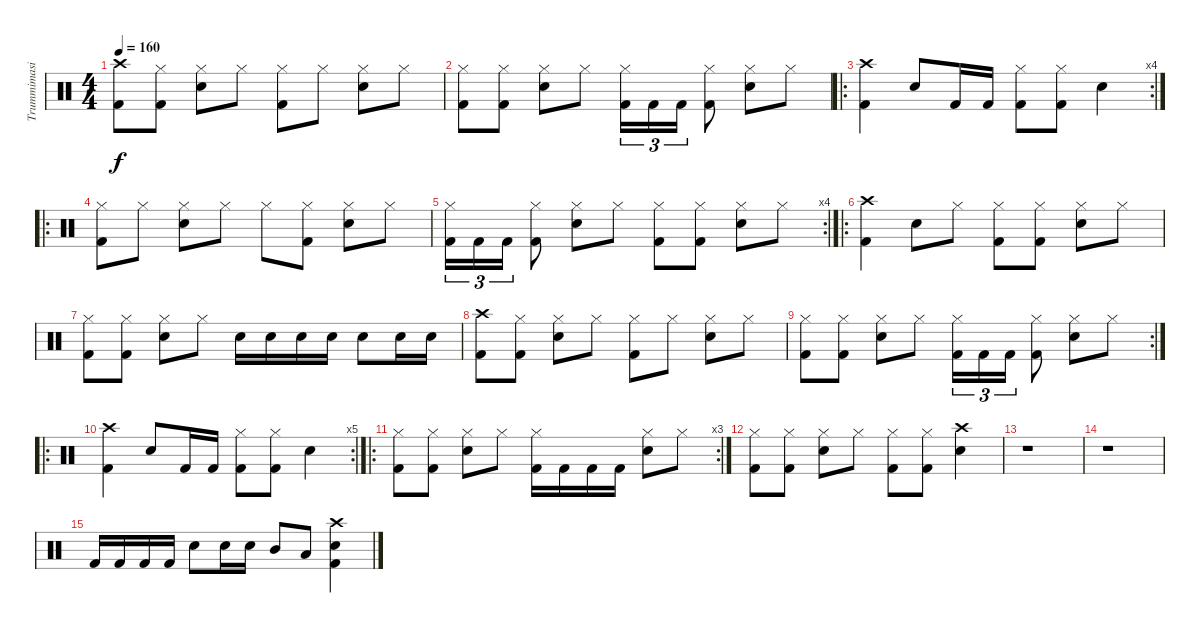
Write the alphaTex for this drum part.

\track ("Trummimasin" "Trummimasi") {instrument percussion}
\staff {score}
\articulation defaults
\ts (4 4)
\tempo 160
\clef neutral
\ks c
("Crash high (hit)" "Kick (hit) 2").8{dy f} ("Hi-Hat (closed)" "Kick (hit) 2").8 ("Hi-Hat (closed)" "Snare (hit) 2").8 "Hi-Hat (closed)".8 ("Hi-Hat (closed)" "Kick (hit) 2").8 "Hi-Hat (closed)".8 ("Hi-Hat (closed)" "Snare (hit) 2").8 "Hi-Hat (closed)".8 |
("Hi-Hat (closed)" "Kick (hit) 2").8 ("Hi-Hat (closed)" "Kick (hit) 2").8 ("Hi-Hat (closed)" "Snare (hit) 2").8 "Hi-Hat (closed)".8 ("Hi-Hat (closed)" "Kick (hit) 2").16{tu (3 2)} "Kick (hit) 2".16{tu (3 2)} "Kick (hit) 2".16{tu (3 2)} ("Hi-Hat (closed)" "Kick (hit) 2").8 ("Hi-Hat (closed)" "Snare (hit) 2").8 "Hi-Hat (closed)".8 |
\ro
\rc 4
("Crash high (hit)" "Kick (hit) 2").4{volume 14} "Snare (hit) 2".8 "Kick (hit) 2".16 "Kick (hit) 2".16 ("Hi-Hat (closed)" "Kick (hit) 2").8 ("Hi-Hat (closed)" "Kick (hit) 2").8 "Snare (hit) 2".4 |
\ro
("Hi-Hat (closed)" "Kick (hit) 2").8 "Hi-Hat (closed)".8 ("Hi-Hat (closed)" "Snare (hit) 2").8 "Hi-Hat (closed)".8 "Hi-Hat (closed)".8 ("Hi-Hat (closed)" "Kick (hit) 2").8 ("Hi-Hat (closed)" "Snare (hit) 2").8 "Hi-Hat (closed)".8 |
\rc 4
("Hi-Hat (closed)" "Kick (hit) 2").16{tu (3 2)} "Kick (hit) 2".16{tu (3 2)} "Kick (hit) 2".16{tu (3 2)} ("Hi-Hat (closed)" "Kick (hit) 2").8 ("Hi-Hat (closed)" "Snare (hit) 2").8 "Hi-Hat (closed)".8 ("Hi-Hat (closed)" "Kick (hit) 2").8 ("Hi-Hat (closed)" "Kick (hit) 2").8 ("Hi-Hat (closed)" "Snare (hit) 2").8 "Hi-Hat (closed)".8 |
\ro
("Crash high (hit)" "Kick (hit) 2").4 "Snare (hit) 2".8 "Hi-Hat (closed)".8 ("Hi-Hat (closed)" "Kick (hit) 2").8 ("Hi-Hat (closed)" "Kick (hit) 2").8 ("Hi-Hat (closed)" "Snare (hit) 2").8 "Hi-Hat (closed)".8 |
("Hi-Hat (closed)" "Kick (hit) 2").8 ("Hi-Hat (closed)" "Kick (hit) 2").8 ("Hi-Hat (closed)" "Snare (hit) 2").8 "Hi-Hat (closed)".8 "Snare (hit) 2".16 "Snare (hit) 2".16 "Snare (hit) 2".16 "Snare (hit) 2".16 "Snare (hit) 2".8 "Snare (hit) 2".16 "Snare (hit) 2".16 |
("Crash high (hit)" "Kick (hit) 2").8 ("Hi-Hat (closed)" "Kick (hit) 2").8 ("Hi-Hat (closed)" "Snare (hit) 2").8 "Hi-Hat (closed)".8 ("Hi-Hat (closed)" "Kick (hit) 2").8 "Hi-Hat (closed)".8 ("Hi-Hat (closed)" "Snare (hit) 2").8 "Hi-Hat (closed)".8 |
\rc 2
("Hi-Hat (closed)" "Kick (hit) 2").8 ("Hi-Hat (closed)" "Kick (hit) 2").8 ("Hi-Hat (closed)" "Snare (hit) 2").8 "Hi-Hat (closed)".8 ("Hi-Hat (closed)" "Kick (hit) 2").16{tu (3 2)} "Kick (hit) 2".16{tu (3 2)} "Kick (hit) 2".16{tu (3 2)} ("Hi-Hat (closed)" "Kick (hit) 2").8 ("Hi-Hat (closed)" "Snare (hit) 2").8 "Hi-Hat (closed)".8 |
\ro
\rc 5
("Crash high (hit)" "Kick (hit) 2").4 "Snare (hit) 2".8 "Kick (hit) 2".16 "Kick (hit) 2".16 ("Hi-Hat (closed)" "Kick (hit) 2").8 ("Hi-Hat (closed)" "Kick (hit) 2").8 "Snare (hit) 2".4 |
\ro
\rc 3
("Hi-Hat (closed)" "Kick (hit) 2").8 ("Hi-Hat (closed)" "Kick (hit) 2").8 ("Hi-Hat (closed)" "Snare (hit) 2").8 "Hi-Hat (closed)".8 ("Hi-Hat (closed)" "Kick (hit) 2").16 "Kick (hit) 2".16 "Kick (hit) 2".16 "Kick (hit) 2".16 ("Hi-Hat (closed)" "Snare (hit) 2").8 "Hi-Hat (closed)".8 |
("Hi-Hat (closed)" "Kick (hit) 2").8 ("Hi-Hat (closed)" "Kick (hit) 2").8 ("Hi-Hat (closed)" "Snare (hit) 2").8 "Hi-Hat (closed)".8 ("Hi-Hat (closed)" "Kick (hit) 2").8 ("Hi-Hat (closed)" "Kick (hit) 2").8 ("Crash high (hit)" "Snare (hit) 2").4 |
r.1 |
r.1 |
"Kick (hit) 2".16 "Kick (hit) 2".16 "Kick (hit) 2".16 "Kick (hit) 2".16 "Snare (hit) 2".8 "Snare (hit) 2".16 "Snare (hit) 2".16 "Mid Tom (hit)".8 "Low Floor Tom (hit)".8 ("Crash high (hit)" "Snare (hit) 2" "Kick (hit) 2").4
